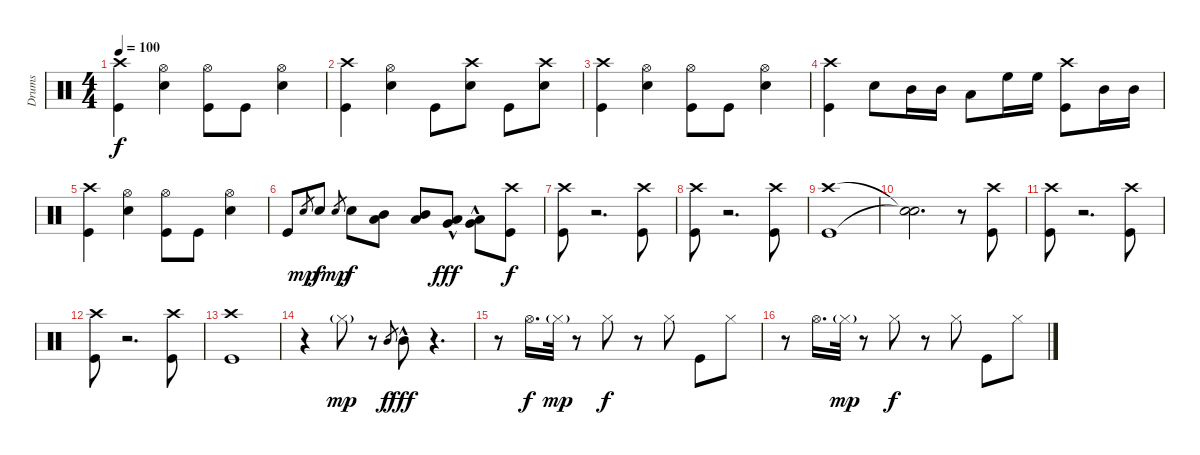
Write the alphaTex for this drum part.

\track ("Drums" "Drums") {instrument percussion}
\staff {score}
\articulation defaults
\ts (4 4)
\tempo 100
\clef neutral
\ks c
("Crash high (hit)" "Kick (hit)").4{dy f} ("Hi-Hat (open)" "Snare (hit) 2").4 ("Hi-Hat (open)" "Kick (hit)").8 "Kick (hit)".8 ("Hi-Hat (open)" "Snare (hit) 2").4 |
("Crash high (hit)" "Kick (hit)").4 ("Hi-Hat (open)" "Snare (hit) 2").4 "Kick (hit)".8 ("Crash high (hit)" "Snare (hit) 2").8 "Kick (hit)".8 ("Crash high (hit)" "Snare (hit) 2").8 |
("Crash high (hit)" "Kick (hit)").4 ("Hi-Hat (open)" "Snare (hit) 2").4 ("Hi-Hat (open)" "Kick (hit)").8 "Kick (hit)".8 ("Hi-Hat (open)" "Snare (hit) 2").4 |
("Crash high (hit)" "Kick (hit)").4 "Snare (hit) 2".8 "Mid Tom (hit)".16 "Mid Tom (hit)".16 "Low Tom (hit)".8 "High Floor Tom (hit)".16 "High Floor Tom (hit)".16 ("Crash high (hit)" "Kick (hit)").8 "Mid Tom (hit)".16 "Mid Tom (hit)".16 |
("Crash high (hit)" "Kick (hit)").4 ("Hi-Hat (open)" "Snare (hit) 2").4 ("Hi-Hat (open)" "Kick (hit)").8 "Kick (hit)".8 ("Hi-Hat (open)" "Snare (hit) 2").4 |
"Kick (hit)".8 "Snare (hit) 2".8{gr dy mp} "Snare (hit) 2".8{dy f} "Snare (hit) 2".8{gr dy mp} "Snare (hit) 2".8{dy f} ("Mid Tom (hit)" "Low Tom (hit)").8 ("Mid Tom (hit)" "Low Tom (hit)").8 ("Low Tom (hit)" "Very Low Tom (hit)"{hac}).8{dy fff} ("Low Tom (hit)" "Very Low Tom (hit)"{hac}).8 ("Crash high (hit)" "Kick (hit)").8{dy f volume 12} |
("Crash high (hit)" "Kick (hit)").8 r.2{d} ("Crash high (hit)" "Kick (hit)").8 |
("Crash high (hit)" "Kick (hit)").8 r.2{d} ("Crash high (hit)" "Kick (hit)").8 |
("Crash high (hit)" "Kick (hit)").1 |
("Snare (hit)"{t} "Snare (hit)"{t}).2{d} r.8 ("Crash high (hit)" "Kick (hit)").8 |
("Crash high (hit)" "Kick (hit)").8 r.2{d} ("Crash high (hit)" "Kick (hit)").8 |
("Crash high (hit)" "Kick (hit)").8 r.2{d} ("Crash high (hit)" "Kick (hit)").8 |
("Crash high (hit)" "Kick (hit)").1 |
r.4 "Hi-Hat (closed)"{g}.8{dy mp} r.8 "Mid Tom (hit)".8{gr dy f} "Mid Tom (hit)"{hac}.8{dy fff} r.4{d volume 11} |
r.8 "Hi-Hat (open)".16{d dy f} "Hi-Hat (closed)"{g}.32{dy mp} r.8 "Hi-Hat (closed)".8{dy f} r.8 "Hi-Hat (closed)".8 "Kick (hit)".8 "Hi-Hat (closed)".8 |
r.8 "Hi-Hat (open)".16{d} "Hi-Hat (closed)"{g}.32{dy mp} r.8 "Hi-Hat (closed)".8{dy f} r.8 "Hi-Hat (closed)".8 "Kick (hit)".8 "Hi-Hat (closed)".8
